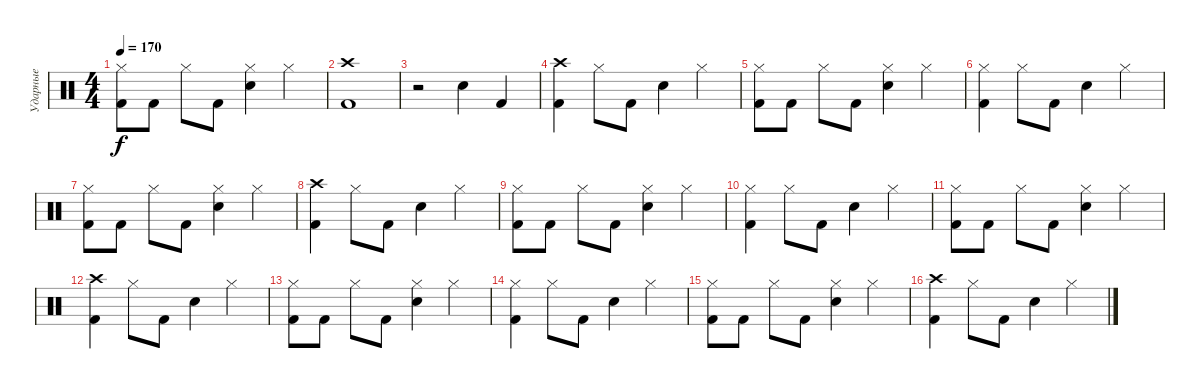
\track ("Ударные" "Ударные") {instrument percussion}
\staff {score}
\articulation defaults
\ts (4 4)
\tempo 170
\clef neutral
\ks c
("Kick (hit) 2" "Hi-Hat (closed)").8{dy f} "Kick (hit) 2".8 "Hi-Hat (closed)".8 "Kick (hit) 2".8 ("Hi-Hat (closed)" "Electric Snare (hit)").4 "Hi-Hat (closed)".4 |
("Kick (hit) 2" "Crash high (hit)").1 |
r.2 "Electric Snare (hit)".4 "Kick (hit) 2".4 |
("Crash high (hit)" "Kick (hit) 2").4 "Hi-Hat (closed)".8 "Kick (hit) 2".8 "Electric Snare (hit)".4 "Hi-Hat (closed)".4 |
("Kick (hit) 2" "Hi-Hat (closed)").8 "Kick (hit) 2".8 "Hi-Hat (closed)".8 "Kick (hit) 2".8 ("Hi-Hat (closed)" "Electric Snare (hit)").4 "Hi-Hat (closed)".4 |
("Kick (hit) 2" "Hi-Hat (closed)").4 "Hi-Hat (closed)".8 "Kick (hit) 2".8 "Electric Snare (hit)".4 "Hi-Hat (closed)".4 |
("Kick (hit) 2" "Hi-Hat (closed)").8 "Kick (hit) 2".8 "Hi-Hat (closed)".8 "Kick (hit) 2".8 ("Hi-Hat (closed)" "Electric Snare (hit)").4 "Hi-Hat (closed)".4 |
("Crash high (hit)" "Kick (hit) 2").4 "Hi-Hat (closed)".8 "Kick (hit) 2".8 "Electric Snare (hit)".4 "Hi-Hat (closed)".4 |
("Kick (hit) 2" "Hi-Hat (closed)").8 "Kick (hit) 2".8 "Hi-Hat (closed)".8 "Kick (hit) 2".8 ("Hi-Hat (closed)" "Electric Snare (hit)").4 "Hi-Hat (closed)".4 |
("Kick (hit) 2" "Hi-Hat (closed)").4 "Hi-Hat (closed)".8 "Kick (hit) 2".8 "Electric Snare (hit)".4 "Hi-Hat (closed)".4 |
("Kick (hit) 2" "Hi-Hat (closed)").8 "Kick (hit) 2".8 "Hi-Hat (closed)".8 "Kick (hit) 2".8 ("Hi-Hat (closed)" "Electric Snare (hit)").4 "Hi-Hat (closed)".4 |
("Crash high (hit)" "Kick (hit) 2").4 "Hi-Hat (closed)".8 "Kick (hit) 2".8 "Electric Snare (hit)".4 "Hi-Hat (closed)".4 |
("Kick (hit) 2" "Hi-Hat (closed)").8 "Kick (hit) 2".8 "Hi-Hat (closed)".8 "Kick (hit) 2".8 ("Hi-Hat (closed)" "Electric Snare (hit)").4 "Hi-Hat (closed)".4 |
("Kick (hit) 2" "Hi-Hat (closed)").4 "Hi-Hat (closed)".8 "Kick (hit) 2".8 "Electric Snare (hit)".4 "Hi-Hat (closed)".4 |
("Kick (hit) 2" "Hi-Hat (closed)").8 "Kick (hit) 2".8 "Hi-Hat (closed)".8 "Kick (hit) 2".8 ("Hi-Hat (closed)" "Electric Snare (hit)").4 "Hi-Hat (closed)".4 |
("Crash high (hit)" "Kick (hit) 2").4 "Hi-Hat (closed)".8 "Kick (hit) 2".8 "Electric Snare (hit)".4 "Hi-Hat (closed)".4
